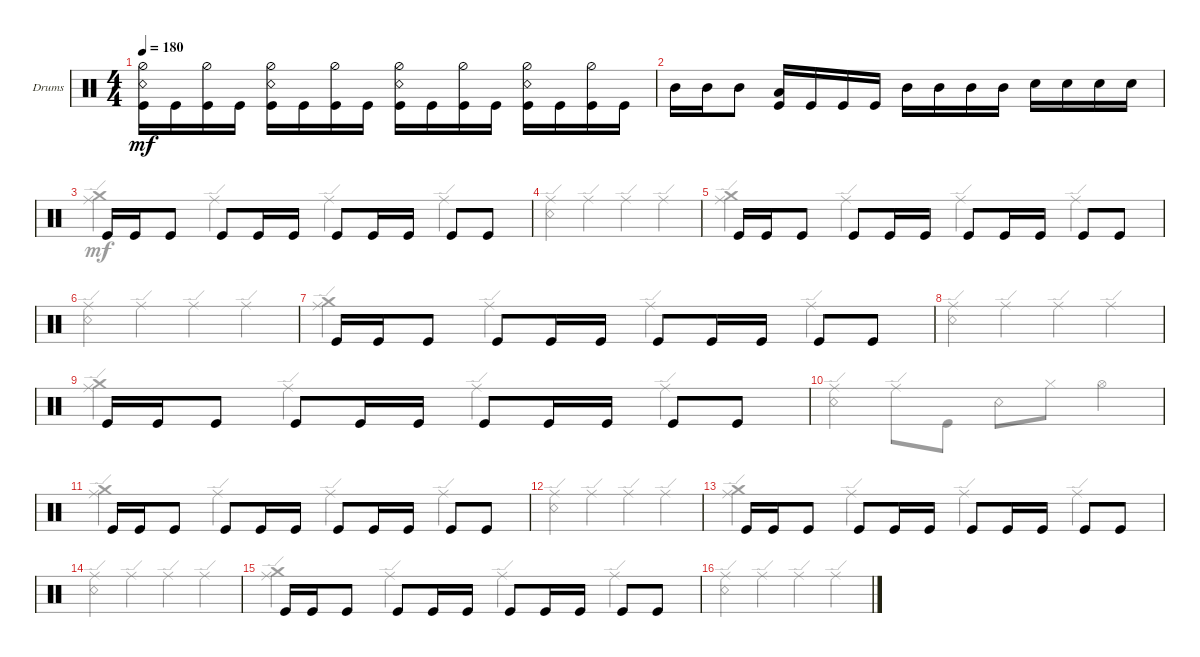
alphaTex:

\defaultSystemsLayout 4
\bracketExtendMode groupsimilarinstruments
\firstSystemTrackNameOrientation horizontal
\otherSystemsTrackNameOrientation horizontal
\track ("Drumkit" "Drums") {instrument percussion}
\staff {score}
\articulation defaults
\voice
\ts (4 4)
\tempo 180
\clef neutral
\ks c
("Kick (hit)" "Snare (rim shot)" "Hi-Hat (half)").16{dy mf} "Kick (hit)".16 ("Kick (hit)" "Hi-Hat (half)").16 "Kick (hit)".16 ("Kick (hit)" "Hi-Hat (half)" "Snare (rim shot)").16 "Kick (hit)".16 ("Kick (hit)" "Hi-Hat (half)").16 "Kick (hit)".16 ("Kick (hit)" "Hi-Hat (half)" "Snare (rim shot)").16 "Kick (hit)".16 ("Kick (hit)" "Hi-Hat (half)").16 "Kick (hit)".16 ("Kick (hit)" "Hi-Hat (half)" "Snare (rim shot)").16 "Kick (hit)".16 ("Kick (hit)" "Hi-Hat (half)").16 "Kick (hit)".16 |
"Mid Tom (hit)".16 "Mid Tom (hit)".16 "Mid Tom (hit)".8 ("Kick (hit)" "Low Tom (hit)").16 "Kick (hit)".16 "Kick (hit)".16 "Kick (hit)".16 "Mid Tom (hit)".16 "Mid Tom (hit)".16 "Mid Tom (hit)".16 "Mid Tom (hit)".16 "Snare (hit) 2".16 "Snare (hit) 2".16 "Snare (hit) 2".16 "Snare (hit) 2".16 |
"Kick (hit)".16 "Kick (hit)".16 "Kick (hit)".8 "Kick (hit)".8 "Kick (hit)".16 "Kick (hit)".16 "Kick (hit)".8 "Kick (hit)".16 "Kick (hit)".16 "Kick (hit)".8 "Kick (hit)".8 |
|
"Kick (hit)".16 "Kick (hit)".16 "Kick (hit)".8 "Kick (hit)".8 "Kick (hit)".16 "Kick (hit)".16 "Kick (hit)".8 "Kick (hit)".16 "Kick (hit)".16 "Kick (hit)".8 "Kick (hit)".8 |
|
"Kick (hit)".16 "Kick (hit)".16 "Kick (hit)".8 "Kick (hit)".8 "Kick (hit)".16 "Kick (hit)".16 "Kick (hit)".8 "Kick (hit)".16 "Kick (hit)".16 "Kick (hit)".8 "Kick (hit)".8 |
|
"Kick (hit)".16 "Kick (hit)".16 "Kick (hit)".8 "Kick (hit)".8 "Kick (hit)".16 "Kick (hit)".16 "Kick (hit)".8 "Kick (hit)".16 "Kick (hit)".16 "Kick (hit)".8 "Kick (hit)".8 |
|
"Kick (hit)".16 "Kick (hit)".16 "Kick (hit)".8 "Kick (hit)".8 "Kick (hit)".16 "Kick (hit)".16 "Kick (hit)".8 "Kick (hit)".16 "Kick (hit)".16 "Kick (hit)".8 "Kick (hit)".8 |
|
"Kick (hit)".16 "Kick (hit)".16 "Kick (hit)".8 "Kick (hit)".8 "Kick (hit)".16 "Kick (hit)".16 "Kick (hit)".8 "Kick (hit)".16 "Kick (hit)".16 "Kick (hit)".8 "Kick (hit)".8 |
|
"Kick (hit)".16 "Kick (hit)".16 "Kick (hit)".8 "Kick (hit)".8 "Kick (hit)".16 "Kick (hit)".16 "Kick (hit)".8 "Kick (hit)".16 "Kick (hit)".16 "Kick (hit)".8 "Kick (hit)".8 |
\voice
\clef neutral
\ottava regular
\simile none
\ks c
|
|
("Ride (edge)" "Crash medium (hit)").4 "Ride (edge)".4 "Ride (edge)".4 "Ride (edge)".4 |
("Ride (edge)" "Snare (rim shot)").4 "Ride (edge)".4 "Ride (edge)".4 "Ride (edge)".4 |
("Ride (edge)" "Crash medium (hit)").4 "Ride (edge)".4 "Ride (edge)".4 "Ride (edge)".4 |
("Ride (edge)" "Snare (rim shot)").4 "Ride (edge)".4 "Ride (edge)".4 "Ride (edge)".4 |
("Ride (edge)" "Crash medium (hit)").4 "Ride (edge)".4 "Ride (edge)".4 "Ride (edge)".4 |
("Ride (edge)" "Snare (rim shot)").4 "Ride (edge)".4 "Ride (edge)".4 "Ride (edge)".4 |
("Ride (edge)" "Crash medium (hit)").4 "Ride (edge)".4 "Ride (edge)".4 "Ride (edge)".4 |
("Ride (edge)" "Snare (rim shot)").4 "Ride (edge)".8 "Kick (hit)".8 "Snare (rim shot)".8 "Hi-Hat (closed)".8 "Hi-Hat (open)".4 |
("Ride (edge)" "Crash medium (hit)").4 "Ride (edge)".4 "Ride (edge)".4 "Ride (edge)".4 |
("Ride (edge)" "Snare (rim shot)").4 "Ride (edge)".4 "Ride (edge)".4 "Ride (edge)".4 |
("Ride (edge)" "Crash medium (hit)").4 "Ride (edge)".4 "Ride (edge)".4 "Ride (edge)".4 |
("Ride (edge)" "Snare (rim shot)").4 "Ride (edge)".4 "Ride (edge)".4 "Ride (edge)".4 |
("Ride (edge)" "Crash medium (hit)").4 "Ride (edge)".4 "Ride (edge)".4 "Ride (edge)".4 |
("Ride (edge)" "Snare (rim shot)").4 "Ride (edge)".4 "Ride (edge)".4 "Ride (edge)".4
